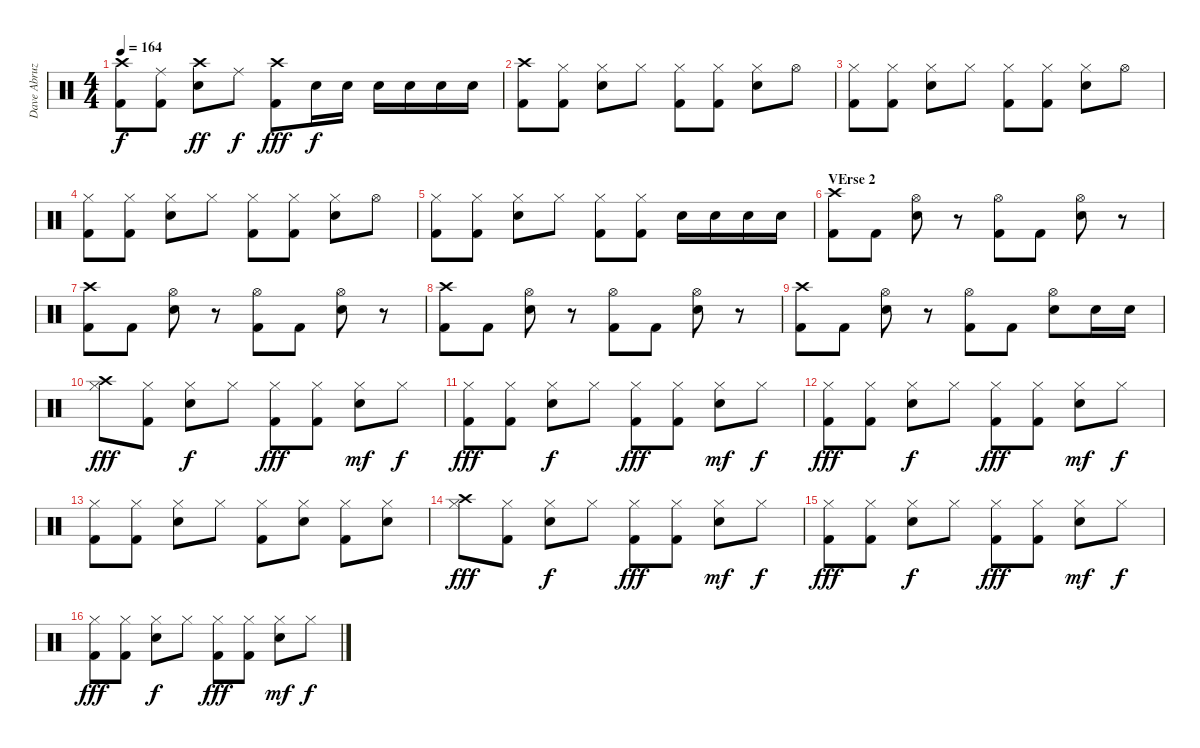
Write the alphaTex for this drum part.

\track ("Dave Abruzzese" "Dave Abruz") {instrument percussion}
\staff {score}
\articulation defaults
\ts (4 4)
\tempo 164
\clef neutral
\ks c
("Crash high (hit)" "Kick (hit) 2").8{dy f} ("Kick (hit) 2" "Ride (middle)").8 ("Crash high (hit)" "Electric Snare (hit)").8{dy ff} "Ride (middle)".8{dy f} ("Crash high (hit)" "Kick (hit) 2").8{dy fff} "Electric Snare (hit)".16{dy f} "Electric Snare (hit)".16 "Electric Snare (hit)".16 "Electric Snare (hit)".16 "Electric Snare (hit)".16 "Electric Snare (hit)".16 |
("Kick (hit) 2" "Crash high (hit)").8 ("Kick (hit) 2" "Hi-Hat (closed)").8 ("Electric Snare (hit)" "Hi-Hat (closed)").8 "Hi-Hat (closed)".8 ("Kick (hit) 2" "Hi-Hat (closed)").8 ("Kick (hit) 2" "Hi-Hat (closed)").8 ("Electric Snare (hit)" "Hi-Hat (closed)").8 "Hi-Hat (open)".8 |
("Kick (hit) 2" "Hi-Hat (closed)").8 ("Kick (hit) 2" "Hi-Hat (closed)").8 ("Electric Snare (hit)" "Hi-Hat (closed)").8 "Hi-Hat (closed)".8 ("Kick (hit) 2" "Hi-Hat (closed)").8 ("Kick (hit) 2" "Hi-Hat (closed)").8 ("Electric Snare (hit)" "Hi-Hat (closed)").8 "Hi-Hat (open)".8 |
("Kick (hit) 2" "Hi-Hat (closed)").8 ("Kick (hit) 2" "Hi-Hat (closed)").8 ("Electric Snare (hit)" "Hi-Hat (closed)").8 "Hi-Hat (closed)".8 ("Kick (hit) 2" "Hi-Hat (closed)").8 ("Kick (hit) 2" "Hi-Hat (closed)").8 ("Electric Snare (hit)" "Hi-Hat (closed)").8 "Hi-Hat (open)".8 |
("Kick (hit) 2" "Hi-Hat (closed)").8 ("Kick (hit) 2" "Hi-Hat (closed)").8 ("Electric Snare (hit)" "Hi-Hat (closed)").8 "Hi-Hat (closed)".8 ("Kick (hit) 2" "Hi-Hat (closed)").8 ("Kick (hit) 2" "Hi-Hat (closed)").8 "Electric Snare (hit)".16 "Electric Snare (hit)".16 "Electric Snare (hit)".16 "Electric Snare (hit)".16 |
\section ("" "VErse 2")
("Kick (hit) 2" "Crash high (hit)").8 "Kick (hit) 2".8 ("Electric Snare (hit)" "Hi-Hat (open)").8 r.8 ("Kick (hit) 2" "Hi-Hat (open)").8 "Kick (hit) 2".8 ("Electric Snare (hit)" "Hi-Hat (open)").8 r.8 |
("Kick (hit) 2" "Crash high (hit)").8 "Kick (hit) 2".8 ("Electric Snare (hit)" "Hi-Hat (open)").8 r.8 ("Kick (hit) 2" "Hi-Hat (open)").8 "Kick (hit) 2".8 ("Electric Snare (hit)" "Hi-Hat (open)").8 r.8 |
("Kick (hit) 2" "Crash high (hit)").8 "Kick (hit) 2".8 ("Electric Snare (hit)" "Hi-Hat (open)").8 r.8 ("Kick (hit) 2" "Hi-Hat (open)").8 "Kick (hit) 2".8 ("Electric Snare (hit)" "Hi-Hat (open)").8 r.8 |
("Kick (hit) 2" "Crash high (hit)").8 "Kick (hit) 2".8 ("Electric Snare (hit)" "Hi-Hat (open)").8 r.8 ("Kick (hit) 2" "Hi-Hat (open)").8 "Kick (hit) 2".8 ("Electric Snare (hit)" "Hi-Hat (open)").8 "Electric Snare (hit)".16 "Electric Snare (hit)".16 |
("Crash high (hit)" "Hi-Hat (closed)").8{dy fff} ("Kick (hit) 2" "Hi-Hat (closed)").8 ("Electric Snare (hit)" "Hi-Hat (closed)").8{dy f} "Hi-Hat (closed)".8 ("Kick (hit) 2" "Hi-Hat (closed)").8{dy fff} ("Kick (hit) 2" "Hi-Hat (closed)").8 ("Electric Snare (hit)" "Hi-Hat (closed)").8{dy mf} "Hi-Hat (closed)".8{dy f} |
("Kick (hit) 2" "Hi-Hat (closed)").8{dy fff} ("Kick (hit) 2" "Hi-Hat (closed)").8 ("Electric Snare (hit)" "Hi-Hat (closed)").8{dy f} "Hi-Hat (closed)".8 ("Kick (hit) 2" "Hi-Hat (closed)").8{dy fff} ("Kick (hit) 2" "Hi-Hat (closed)").8 ("Electric Snare (hit)" "Hi-Hat (closed)").8{dy mf} "Hi-Hat (closed)".8{dy f} |
("Kick (hit) 2" "Hi-Hat (closed)").8{dy fff} ("Kick (hit) 2" "Hi-Hat (closed)").8 ("Electric Snare (hit)" "Hi-Hat (closed)").8{dy f} "Hi-Hat (closed)".8 ("Kick (hit) 2" "Hi-Hat (closed)").8{dy fff} ("Kick (hit) 2" "Hi-Hat (closed)").8 ("Electric Snare (hit)" "Hi-Hat (closed)").8{dy mf} "Hi-Hat (closed)".8{dy f} |
("Kick (hit) 2" "Hi-Hat (closed)").8 ("Kick (hit) 2" "Hi-Hat (closed)").8 ("Electric Snare (hit)" "Hi-Hat (closed)").8 "Hi-Hat (closed)".8 ("Kick (hit) 2" "Hi-Hat (closed)").8 ("Electric Snare (hit)" "Hi-Hat (closed)").8 ("Kick (hit) 2" "Hi-Hat (closed)").8 ("Electric Snare (hit)" "Hi-Hat (closed)").8 |
("Crash high (hit)" "Hi-Hat (closed)").8{dy fff} ("Kick (hit) 2" "Hi-Hat (closed)").8 ("Electric Snare (hit)" "Hi-Hat (closed)").8{dy f} "Hi-Hat (closed)".8 ("Kick (hit) 2" "Hi-Hat (closed)").8{dy fff} ("Kick (hit) 2" "Hi-Hat (closed)").8 ("Electric Snare (hit)" "Hi-Hat (closed)").8{dy mf} "Hi-Hat (closed)".8{dy f} |
("Kick (hit) 2" "Hi-Hat (closed)").8{dy fff} ("Kick (hit) 2" "Hi-Hat (closed)").8 ("Electric Snare (hit)" "Hi-Hat (closed)").8{dy f} "Hi-Hat (closed)".8 ("Kick (hit) 2" "Hi-Hat (closed)").8{dy fff} ("Kick (hit) 2" "Hi-Hat (closed)").8 ("Electric Snare (hit)" "Hi-Hat (closed)").8{dy mf} "Hi-Hat (closed)".8{dy f} |
("Kick (hit) 2" "Hi-Hat (closed)").8{dy fff} ("Kick (hit) 2" "Hi-Hat (closed)").8 ("Electric Snare (hit)" "Hi-Hat (closed)").8{dy f} "Hi-Hat (closed)".8 ("Kick (hit) 2" "Hi-Hat (closed)").8{dy fff} ("Kick (hit) 2" "Hi-Hat (closed)").8 ("Electric Snare (hit)" "Hi-Hat (closed)").8{dy mf} "Hi-Hat (closed)".8{dy f}
